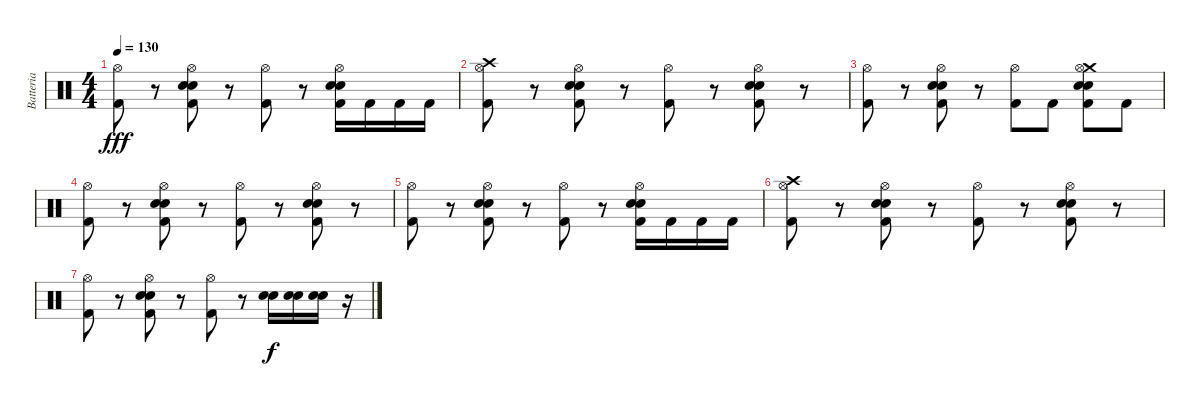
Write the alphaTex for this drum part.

\track ("Batteria" "Batteria") {instrument percussion}
\staff {score}
\articulation defaults
\ts (4 4)
\tempo 130
\clef neutral
\ks c
("Hi-Hat (open)" "Kick (hit) 2").8{dy fff} r.8 ("Hi-Hat (open)" "Electric Snare (hit)" "Snare (hit) 2" "Kick (hit) 2").8 r.8 ("Hi-Hat (open)" "Kick (hit) 2").8 r.8 ("Hi-Hat (open)" "Electric Snare (hit)" "Snare (hit) 2" "Kick (hit) 2").16 "Kick (hit) 2".16 "Kick (hit) 2".16 "Kick (hit) 2".16 |
("Crash high (hit)" "Hi-Hat (open)" "Kick (hit) 2").8 r.8 ("Hi-Hat (open)" "Electric Snare (hit)" "Snare (hit) 2" "Kick (hit) 2").8 r.8 ("Hi-Hat (open)" "Kick (hit) 2").8 r.8 ("Hi-Hat (open)" "Electric Snare (hit)" "Snare (hit) 2" "Kick (hit) 2").8 r.8 |
("Hi-Hat (open)" "Kick (hit) 2").8 r.8 ("Hi-Hat (open)" "Electric Snare (hit)" "Snare (hit) 2" "Kick (hit) 2").8 r.8 ("Hi-Hat (open)" "Kick (hit) 2").8 "Kick (hit) 2".8 ("Crash medium (hit)" "Hi-Hat (open)" "Electric Snare (hit)" "Snare (hit) 2" "Kick (hit) 2").8 "Kick (hit) 2".8 |
("Hi-Hat (open)" "Kick (hit) 2").8 r.8 ("Hi-Hat (open)" "Electric Snare (hit)" "Snare (hit) 2" "Kick (hit) 2").8 r.8 ("Hi-Hat (open)" "Kick (hit) 2").8 r.8 ("Hi-Hat (open)" "Electric Snare (hit)" "Snare (hit) 2" "Kick (hit) 2").8 r.8 |
("Hi-Hat (open)" "Kick (hit) 2").8 r.8 ("Hi-Hat (open)" "Electric Snare (hit)" "Snare (hit) 2" "Kick (hit) 2").8 r.8 ("Hi-Hat (open)" "Kick (hit) 2").8 r.8 ("Hi-Hat (open)" "Electric Snare (hit)" "Snare (hit) 2" "Kick (hit) 2").16 "Kick (hit) 2".16 "Kick (hit) 2".16 "Kick (hit) 2".16 |
("Crash high (hit)" "Hi-Hat (open)" "Kick (hit) 2").8 r.8 ("Hi-Hat (open)" "Electric Snare (hit)" "Snare (hit) 2" "Kick (hit) 2").8 r.8 ("Hi-Hat (open)" "Kick (hit) 2").8 r.8 ("Hi-Hat (open)" "Electric Snare (hit)" "Snare (hit) 2" "Kick (hit) 2").8 r.8 |
("Hi-Hat (open)" "Kick (hit) 2").8 r.8 ("Hi-Hat (open)" "Electric Snare (hit)" "Snare (hit) 2" "Kick (hit) 2").8 r.8 ("Hi-Hat (open)" "Kick (hit) 2").8 r.8 ("Electric Snare (hit)" "Snare (hit) 2").16{dy f} ("Electric Snare (hit)" "Snare (hit) 2").16 ("Electric Snare (hit)" "Snare (hit) 2").16 r.16
